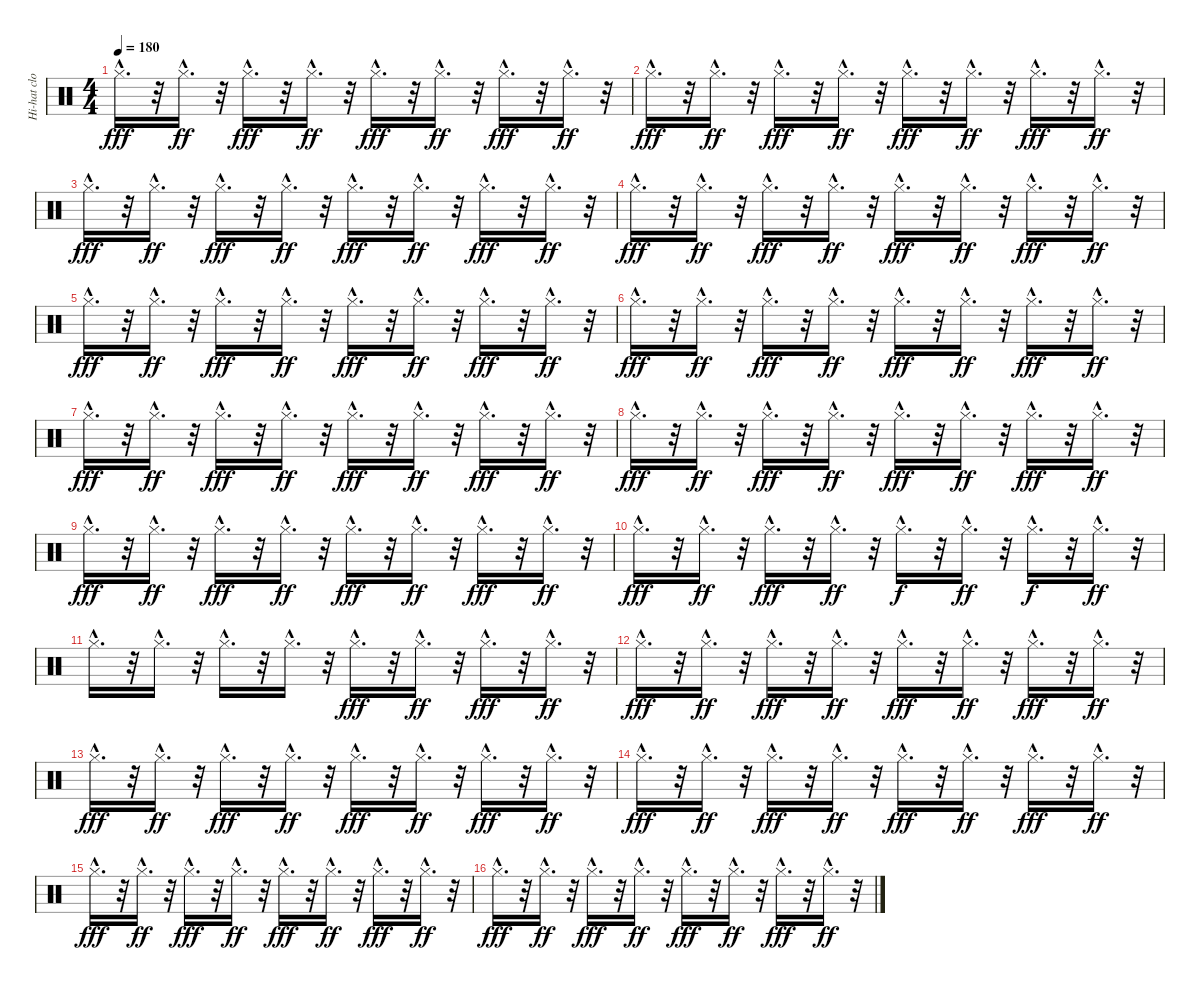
\track ("Hi-hat closed" "Hi-hat clo") {instrument percussion}
\staff {score}
\articulation defaults
\ts (4 4)
\tempo 180
\clef neutral
\ks c "Hi-Hat (closed)"{hac}.16{d dy fff}
r.32 "Hi-Hat (closed)"{hac}.16{d dy ff} r.32 "Hi-Hat (closed)"{hac}.16{d dy fff} r.32 "Hi-Hat (closed)"{hac}.16{d dy ff} r.32 "Hi-Hat (closed)"{hac}.16{d dy fff} r.32 "Hi-Hat (closed)"{hac}.16{d dy ff} r.32 "Hi-Hat (closed)"{hac}.16{d dy fff} r.32 "Hi-Hat (closed)"{hac}.16{d dy ff} r.32 |
"Hi-Hat (closed)"{hac}.16{d dy fff} r.32 "Hi-Hat (closed)"{hac}.16{d dy ff} r.32 "Hi-Hat (closed)"{hac}.16{d dy fff} r.32 "Hi-Hat (closed)"{hac}.16{d dy ff} r.32 "Hi-Hat (closed)"{hac}.16{d dy fff} r.32 "Hi-Hat (closed)"{hac}.16{d dy ff} r.32 "Hi-Hat (closed)"{hac}.16{d dy fff} r.32 "Hi-Hat (closed)"{hac}.16{d dy ff} r.32 |
"Hi-Hat (closed)"{hac}.16{d dy fff} r.32 "Hi-Hat (closed)"{hac}.16{d dy ff} r.32 "Hi-Hat (closed)"{hac}.16{d dy fff} r.32 "Hi-Hat (closed)"{hac}.16{d dy ff} r.32 "Hi-Hat (closed)"{hac}.16{d dy fff} r.32 "Hi-Hat (closed)"{hac}.16{d dy ff} r.32 "Hi-Hat (closed)"{hac}.16{d dy fff} r.32 "Hi-Hat (closed)"{hac}.16{d dy ff} r.32 |
"Hi-Hat (closed)"{hac}.16{d dy fff} r.32 "Hi-Hat (closed)"{hac}.16{d dy ff} r.32 "Hi-Hat (closed)"{hac}.16{d dy fff} r.32 "Hi-Hat (closed)"{hac}.16{d dy ff} r.32 "Hi-Hat (closed)"{hac}.16{d dy fff} r.32 "Hi-Hat (closed)"{hac}.16{d dy ff} r.32 "Hi-Hat (closed)"{hac}.16{d dy fff} r.32 "Hi-Hat (closed)"{hac}.16{d dy ff} r.32 |
"Hi-Hat (closed)"{hac}.16{d dy fff} r.32 "Hi-Hat (closed)"{hac}.16{d dy ff} r.32 "Hi-Hat (closed)"{hac}.16{d dy fff} r.32 "Hi-Hat (closed)"{hac}.16{d dy ff} r.32 "Hi-Hat (closed)"{hac}.16{d dy fff} r.32 "Hi-Hat (closed)"{hac}.16{d dy ff} r.32 "Hi-Hat (closed)"{hac}.16{d dy fff} r.32 "Hi-Hat (closed)"{hac}.16{d dy ff} r.32 |
"Hi-Hat (closed)"{hac}.16{d dy fff} r.32 "Hi-Hat (closed)"{hac}.16{d dy ff} r.32 "Hi-Hat (closed)"{hac}.16{d dy fff} r.32 "Hi-Hat (closed)"{hac}.16{d dy ff} r.32 "Hi-Hat (closed)"{hac}.16{d dy fff} r.32 "Hi-Hat (closed)"{hac}.16{d dy ff} r.32 "Hi-Hat (closed)"{hac}.16{d dy fff} r.32 "Hi-Hat (closed)"{hac}.16{d dy ff} r.32 |
"Hi-Hat (closed)"{hac}.16{d dy fff} r.32 "Hi-Hat (closed)"{hac}.16{d dy ff} r.32 "Hi-Hat (closed)"{hac}.16{d dy fff} r.32 "Hi-Hat (closed)"{hac}.16{d dy ff} r.32 "Hi-Hat (closed)"{hac}.16{d dy fff} r.32 "Hi-Hat (closed)"{hac}.16{d dy ff} r.32 "Hi-Hat (closed)"{hac}.16{d dy fff} r.32 "Hi-Hat (closed)"{hac}.16{d dy ff} r.32 |
"Hi-Hat (closed)"{hac}.16{d dy fff} r.32 "Hi-Hat (closed)"{hac}.16{d dy ff} r.32 "Hi-Hat (closed)"{hac}.16{d dy fff} r.32 "Hi-Hat (closed)"{hac}.16{d dy ff} r.32 "Hi-Hat (closed)"{hac}.16{d dy fff} r.32 "Hi-Hat (closed)"{hac}.16{d dy ff} r.32 "Hi-Hat (closed)"{hac}.16{d dy fff} r.32 "Hi-Hat (closed)"{hac}.16{d dy ff} r.32 |
"Hi-Hat (closed)"{hac}.16{d dy fff} r.32 "Hi-Hat (closed)"{hac}.16{d dy ff} r.32 "Hi-Hat (closed)"{hac}.16{d dy fff} r.32 "Hi-Hat (closed)"{hac}.16{d dy ff} r.32 "Hi-Hat (closed)"{hac}.16{d dy fff} r.32 "Hi-Hat (closed)"{hac}.16{d dy ff} r.32 "Hi-Hat (closed)"{hac}.16{d dy fff} r.32 "Hi-Hat (closed)"{hac}.16{d dy ff} r.32 |
"Hi-Hat (closed)"{hac}.16{d dy fff} r.32 "Hi-Hat (closed)"{hac}.16{d dy ff} r.32 "Hi-Hat (closed)"{hac}.16{d dy fff} r.32 "Hi-Hat (closed)"{hac}.16{d dy ff} r.32 "Hi-Hat (closed)"{hac}.16{d dy f} r.32 "Hi-Hat (closed)"{hac}.16{d dy ff} r.32 "Hi-Hat (closed)"{hac}.16{d dy f} r.32 "Hi-Hat (closed)"{hac}.16{d dy ff} r.32 |
"Hi-Hat (closed)"{hac}.16{d} r.32 "Hi-Hat (closed)"{hac}.16{d} r.32 "Hi-Hat (closed)"{hac}.16{d} r.32 "Hi-Hat (closed)"{hac}.16{d} r.32 "Hi-Hat (closed)"{hac}.16{d dy fff} r.32 "Hi-Hat (closed)"{hac}.16{d dy ff} r.32 "Hi-Hat (closed)"{hac}.16{d dy fff} r.32 "Hi-Hat (closed)"{hac}.16{d dy ff} r.32 |
"Hi-Hat (closed)"{hac}.16{d dy fff} r.32 "Hi-Hat (closed)"{hac}.16{d dy ff} r.32 "Hi-Hat (closed)"{hac}.16{d dy fff} r.32 "Hi-Hat (closed)"{hac}.16{d dy ff} r.32 "Hi-Hat (closed)"{hac}.16{d dy fff} r.32 "Hi-Hat (closed)"{hac}.16{d dy ff} r.32 "Hi-Hat (closed)"{hac}.16{d dy fff} r.32 "Hi-Hat (closed)"{hac}.16{d dy ff} r.32 |
"Hi-Hat (closed)"{hac}.16{d dy fff} r.32 "Hi-Hat (closed)"{hac}.16{d dy ff} r.32 "Hi-Hat (closed)"{hac}.16{d dy fff} r.32 "Hi-Hat (closed)"{hac}.16{d dy ff} r.32 "Hi-Hat (closed)"{hac}.16{d dy fff} r.32 "Hi-Hat (closed)"{hac}.16{d dy ff} r.32 "Hi-Hat (closed)"{hac}.16{d dy fff} r.32 "Hi-Hat (closed)"{hac}.16{d dy ff} r.32 |
"Hi-Hat (closed)"{hac}.16{d dy fff} r.32 "Hi-Hat (closed)"{hac}.16{d dy ff} r.32 "Hi-Hat (closed)"{hac}.16{d dy fff} r.32 "Hi-Hat (closed)"{hac}.16{d dy ff} r.32 "Hi-Hat (closed)"{hac}.16{d dy fff} r.32 "Hi-Hat (closed)"{hac}.16{d dy ff} r.32 "Hi-Hat (closed)"{hac}.16{d dy fff} r.32 "Hi-Hat (closed)"{hac}.16{d dy ff} r.32 |
"Hi-Hat (closed)"{hac}.16{d dy fff} r.32 "Hi-Hat (closed)"{hac}.16{d dy ff} r.32 "Hi-Hat (closed)"{hac}.16{d dy fff} r.32 "Hi-Hat (closed)"{hac}.16{d dy ff} r.32 "Hi-Hat (closed)"{hac}.16{d dy fff} r.32 "Hi-Hat (closed)"{hac}.16{d dy ff} r.32 "Hi-Hat (closed)"{hac}.16{d dy fff} r.32 "Hi-Hat (closed)"{hac}.16{d dy ff} r.32 |
"Hi-Hat (closed)"{hac}.16{d dy fff} r.32 "Hi-Hat (closed)"{hac}.16{d dy ff} r.32 "Hi-Hat (closed)"{hac}.16{d dy fff} r.32 "Hi-Hat (closed)"{hac}.16{d dy ff} r.32 "Hi-Hat (closed)"{hac}.16{d dy fff} r.32 "Hi-Hat (closed)"{hac}.16{d dy ff} r.32 "Hi-Hat (closed)"{hac}.16{d dy fff} r.32 "Hi-Hat (closed)"{hac}.16{d dy ff} r.32
